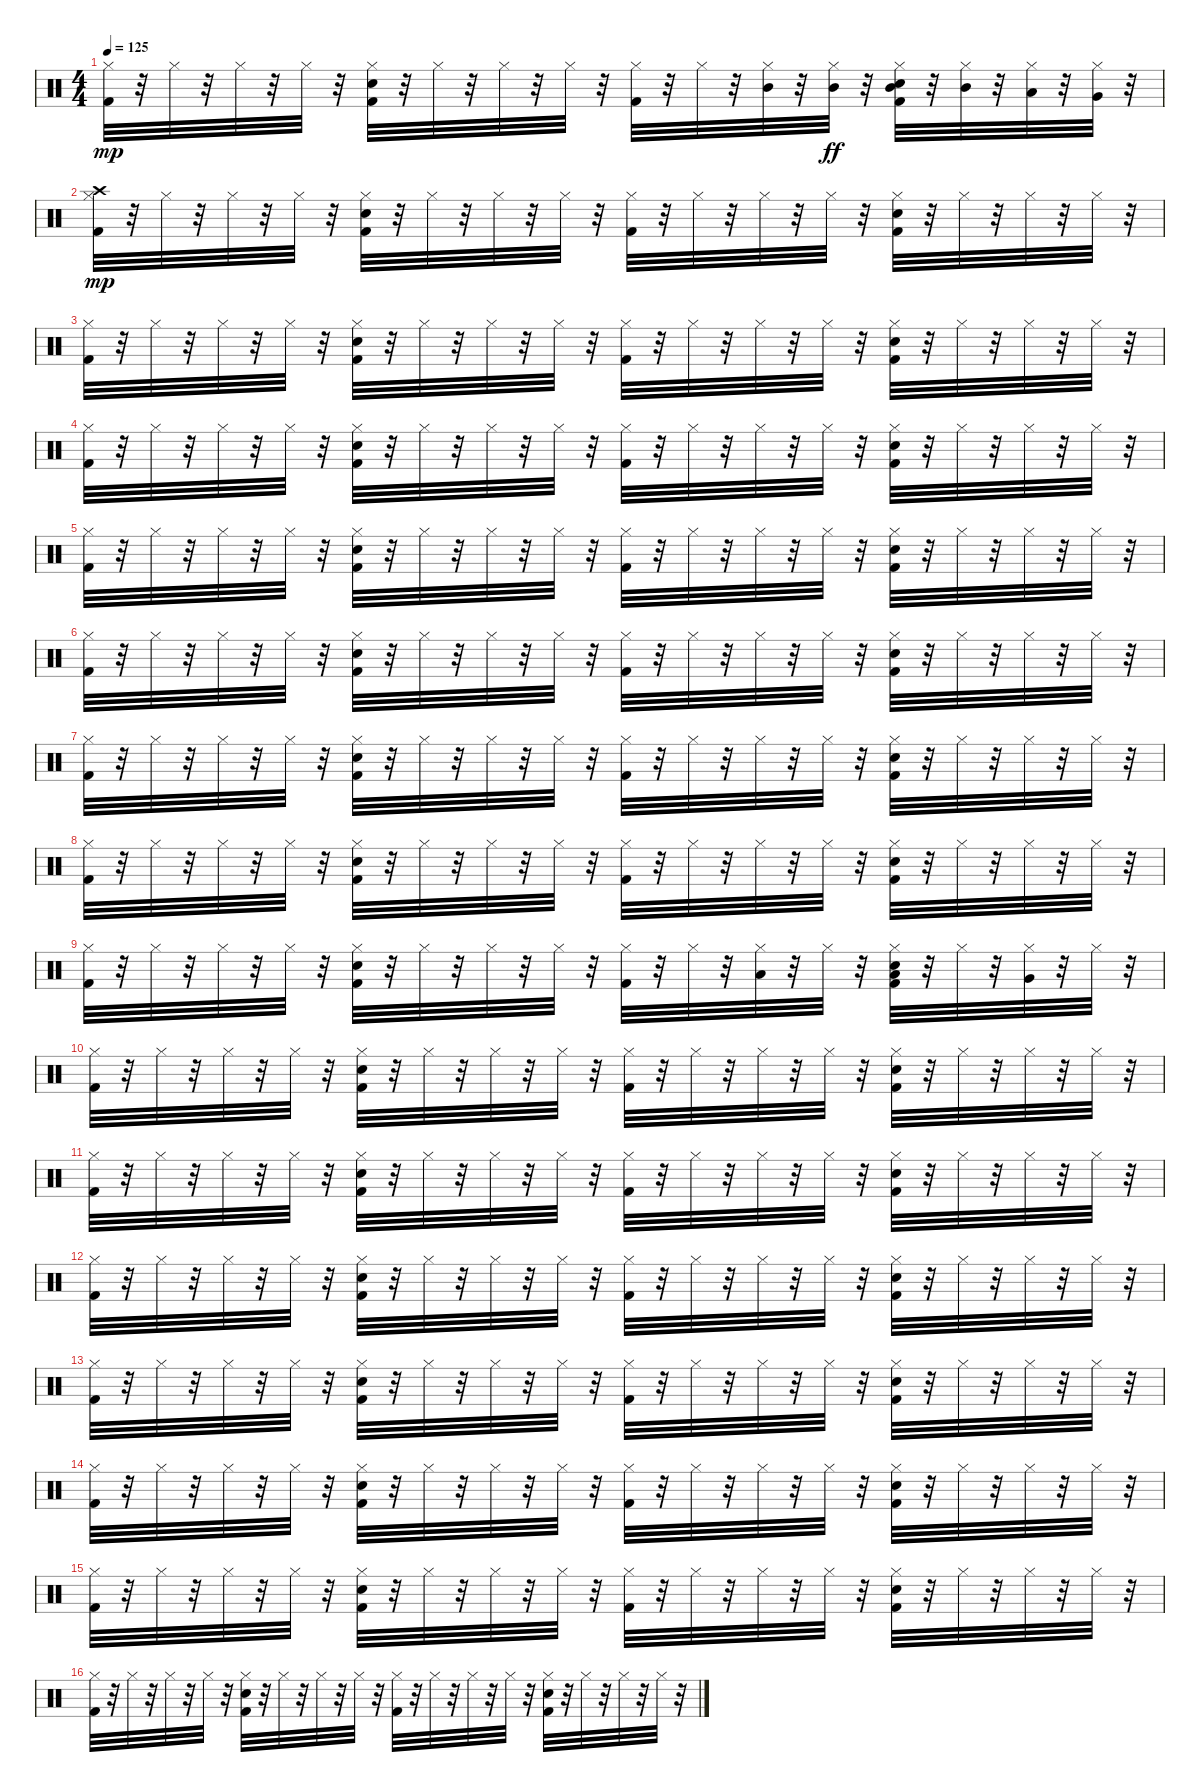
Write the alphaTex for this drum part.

\track "" {instrument percussion}
\staff {score}
\articulation defaults
\ts (4 4)
\tempo 125
\clef neutral
\ks c
("Kick (hit) 2" "Hi-Hat (closed)").32{dy mp} r.32 "Hi-Hat (closed)".32 r.32 "Hi-Hat (closed)".32 r.32 "Hi-Hat (closed)".32 r.32 ("Kick (hit) 2" "Snare (hit) 2" "Hi-Hat (closed)").32 r.32 "Hi-Hat (closed)".32 r.32 "Hi-Hat (closed)".32 r.32 "Hi-Hat (closed)".32 r.32 ("Kick (hit) 2" "Hi-Hat (closed)").32 r.32 "Hi-Hat (closed)".32 r.32 ("Mid Tom (hit)" "Hi-Hat (closed)").32 r.32 ("Hi-Hat (closed)" "Mid Tom (hit)").32{dy ff} r.32 ("Kick (hit) 2" "Snare (hit) 2" "Hi-Hat (closed)" "Mid Tom (hit)").32 r.32 ("Hi-Hat (closed)" "Mid Tom (hit)").32 r.32 ("Hi-Hat (closed)" "Low Tom (hit)").32 r.32 ("Hi-Hat (closed)" "Very Low Tom (hit)").32 r.32 |
("Crash high (hit)" "Kick (hit) 2" "Hi-Hat (closed)").32{dy mp} r.32 "Hi-Hat (closed)".32 r.32 "Hi-Hat (closed)".32 r.32 "Hi-Hat (closed)".32 r.32 ("Kick (hit) 2" "Snare (hit) 2" "Hi-Hat (closed)").32 r.32 "Hi-Hat (closed)".32 r.32 "Hi-Hat (closed)".32 r.32 "Hi-Hat (closed)".32 r.32 ("Kick (hit) 2" "Hi-Hat (closed)").32 r.32 "Hi-Hat (closed)".32 r.32 "Hi-Hat (closed)".32 r.32 "Hi-Hat (closed)".32 r.32 ("Kick (hit) 2" "Snare (hit) 2" "Hi-Hat (closed)").32 r.32 "Hi-Hat (closed)".32 r.32 "Hi-Hat (closed)".32 r.32 "Hi-Hat (closed)".32 r.32 |
("Kick (hit) 2" "Hi-Hat (closed)").32 r.32 "Hi-Hat (closed)".32 r.32 "Hi-Hat (closed)".32 r.32 "Hi-Hat (closed)".32 r.32 ("Kick (hit) 2" "Snare (hit) 2" "Hi-Hat (closed)").32 r.32 "Hi-Hat (closed)".32 r.32 "Hi-Hat (closed)".32 r.32 "Hi-Hat (closed)".32 r.32 ("Kick (hit) 2" "Hi-Hat (closed)").32 r.32 "Hi-Hat (closed)".32 r.32 "Hi-Hat (closed)".32 r.32 "Hi-Hat (closed)".32 r.32 ("Kick (hit) 2" "Snare (hit) 2" "Hi-Hat (closed)").32 r.32 "Hi-Hat (closed)".32 r.32 "Hi-Hat (closed)".32 r.32 "Hi-Hat (closed)".32 r.32 |
("Kick (hit) 2" "Hi-Hat (closed)").32 r.32 "Hi-Hat (closed)".32 r.32 "Hi-Hat (closed)".32 r.32 "Hi-Hat (closed)".32 r.32 ("Kick (hit) 2" "Snare (hit) 2" "Hi-Hat (closed)").32 r.32 "Hi-Hat (closed)".32 r.32 "Hi-Hat (closed)".32 r.32 "Hi-Hat (closed)".32 r.32 ("Kick (hit) 2" "Hi-Hat (closed)").32 r.32 "Hi-Hat (closed)".32 r.32 "Hi-Hat (closed)".32 r.32 "Hi-Hat (closed)".32 r.32 ("Kick (hit) 2" "Snare (hit) 2" "Hi-Hat (closed)").32 r.32 "Hi-Hat (closed)".32 r.32 "Hi-Hat (closed)".32 r.32 "Hi-Hat (closed)".32 r.32 |
("Kick (hit) 2" "Hi-Hat (closed)").32 r.32 "Hi-Hat (closed)".32 r.32 "Hi-Hat (closed)".32 r.32 "Hi-Hat (closed)".32 r.32 ("Kick (hit) 2" "Snare (hit) 2" "Hi-Hat (closed)").32 r.32 "Hi-Hat (closed)".32 r.32 "Hi-Hat (closed)".32 r.32 "Hi-Hat (closed)".32 r.32 ("Kick (hit) 2" "Hi-Hat (closed)").32 r.32 "Hi-Hat (closed)".32 r.32 "Hi-Hat (closed)".32 r.32 "Hi-Hat (closed)".32 r.32 ("Kick (hit) 2" "Snare (hit) 2" "Hi-Hat (closed)").32 r.32 "Hi-Hat (closed)".32 r.32 "Hi-Hat (closed)".32 r.32 "Hi-Hat (closed)".32 r.32 |
("Kick (hit) 2" "Hi-Hat (closed)").32 r.32 "Hi-Hat (closed)".32 r.32 "Hi-Hat (closed)".32 r.32 "Hi-Hat (closed)".32 r.32 ("Kick (hit) 2" "Snare (hit) 2" "Hi-Hat (closed)").32 r.32 "Hi-Hat (closed)".32 r.32 "Hi-Hat (closed)".32 r.32 "Hi-Hat (closed)".32 r.32 ("Kick (hit) 2" "Hi-Hat (closed)").32 r.32 "Hi-Hat (closed)".32 r.32 "Hi-Hat (closed)".32 r.32 "Hi-Hat (closed)".32 r.32 ("Kick (hit) 2" "Snare (hit) 2" "Hi-Hat (closed)").32 r.32 "Hi-Hat (closed)".32 r.32 "Hi-Hat (closed)".32 r.32 "Hi-Hat (closed)".32 r.32 |
("Kick (hit) 2" "Hi-Hat (closed)").32 r.32 "Hi-Hat (closed)".32 r.32 "Hi-Hat (closed)".32 r.32 "Hi-Hat (closed)".32 r.32 ("Kick (hit) 2" "Snare (hit) 2" "Hi-Hat (closed)").32 r.32 "Hi-Hat (closed)".32 r.32 "Hi-Hat (closed)".32 r.32 "Hi-Hat (closed)".32 r.32 ("Kick (hit) 2" "Hi-Hat (closed)").32 r.32 "Hi-Hat (closed)".32 r.32 "Hi-Hat (closed)".32 r.32 "Hi-Hat (closed)".32 r.32 ("Kick (hit) 2" "Snare (hit) 2" "Hi-Hat (closed)").32 r.32 "Hi-Hat (closed)".32 r.32 "Hi-Hat (closed)".32 r.32 "Hi-Hat (closed)".32 r.32 |
("Kick (hit) 2" "Hi-Hat (closed)").32 r.32 "Hi-Hat (closed)".32 r.32 "Hi-Hat (closed)".32 r.32 "Hi-Hat (closed)".32 r.32 ("Kick (hit) 2" "Snare (hit) 2" "Hi-Hat (closed)").32 r.32 "Hi-Hat (closed)".32 r.32 "Hi-Hat (closed)".32 r.32 "Hi-Hat (closed)".32 r.32 ("Kick (hit) 2" "Hi-Hat (closed)").32 r.32 "Hi-Hat (closed)".32 r.32 "Hi-Hat (closed)".32 r.32 "Hi-Hat (closed)".32 r.32 ("Kick (hit) 2" "Snare (hit) 2" "Hi-Hat (closed)").32 r.32 "Hi-Hat (closed)".32 r.32 "Hi-Hat (closed)".32 r.32 "Hi-Hat (closed)".32 r.32 |
("Kick (hit) 2" "Hi-Hat (closed)").32 r.32 "Hi-Hat (closed)".32 r.32 "Hi-Hat (closed)".32 r.32 "Hi-Hat (closed)".32 r.32 ("Kick (hit) 2" "Snare (hit) 2" "Hi-Hat (closed)").32 r.32 "Hi-Hat (closed)".32 r.32 "Hi-Hat (closed)".32 r.32 "Hi-Hat (closed)".32 r.32 ("Kick (hit) 2" "Hi-Hat (closed)").32 r.32 "Hi-Hat (closed)".32 r.32 ("Low Tom (hit)" "Hi-Hat (closed)").32 r.32 "Hi-Hat (closed)".32 r.32 ("Low Tom (hit)" "Kick (hit) 2" "Snare (hit) 2" "Hi-Hat (closed)").32 r.32 "Hi-Hat (closed)".32 r.32 ("Very Low Tom (hit)" "Hi-Hat (closed)").32 r.32 "Hi-Hat (closed)".32 r.32 |
("Kick (hit) 2" "Hi-Hat (closed)").32 r.32 "Hi-Hat (closed)".32 r.32 "Hi-Hat (closed)".32 r.32 "Hi-Hat (closed)".32 r.32 ("Kick (hit) 2" "Snare (hit) 2" "Hi-Hat (closed)").32 r.32 "Hi-Hat (closed)".32 r.32 "Hi-Hat (closed)".32 r.32 "Hi-Hat (closed)".32 r.32 ("Kick (hit) 2" "Hi-Hat (closed)").32 r.32 "Hi-Hat (closed)".32 r.32 "Hi-Hat (closed)".32 r.32 "Hi-Hat (closed)".32 r.32 ("Kick (hit) 2" "Snare (hit) 2" "Hi-Hat (closed)").32 r.32 "Hi-Hat (closed)".32 r.32 "Hi-Hat (closed)".32 r.32 "Hi-Hat (closed)".32 r.32 |
("Kick (hit) 2" "Hi-Hat (closed)").32 r.32 "Hi-Hat (closed)".32 r.32 "Hi-Hat (closed)".32 r.32 "Hi-Hat (closed)".32 r.32 ("Kick (hit) 2" "Snare (hit) 2" "Hi-Hat (closed)").32 r.32 "Hi-Hat (closed)".32 r.32 "Hi-Hat (closed)".32 r.32 "Hi-Hat (closed)".32 r.32 ("Kick (hit) 2" "Hi-Hat (closed)").32 r.32 "Hi-Hat (closed)".32 r.32 "Hi-Hat (closed)".32 r.32 "Hi-Hat (closed)".32 r.32 ("Kick (hit) 2" "Snare (hit) 2" "Hi-Hat (closed)").32 r.32 "Hi-Hat (closed)".32 r.32 "Hi-Hat (closed)".32 r.32 "Hi-Hat (closed)".32 r.32 |
("Kick (hit) 2" "Hi-Hat (closed)").32 r.32 "Hi-Hat (closed)".32 r.32 "Hi-Hat (closed)".32 r.32 "Hi-Hat (closed)".32 r.32 ("Kick (hit) 2" "Snare (hit) 2" "Hi-Hat (closed)").32 r.32 "Hi-Hat (closed)".32 r.32 "Hi-Hat (closed)".32 r.32 "Hi-Hat (closed)".32 r.32 ("Kick (hit) 2" "Hi-Hat (closed)").32 r.32 "Hi-Hat (closed)".32 r.32 "Hi-Hat (closed)".32 r.32 "Hi-Hat (closed)".32 r.32 ("Kick (hit) 2" "Snare (hit) 2" "Hi-Hat (closed)").32 r.32 "Hi-Hat (closed)".32 r.32 "Hi-Hat (closed)".32 r.32 "Hi-Hat (closed)".32 r.32 |
("Kick (hit) 2" "Hi-Hat (closed)").32 r.32 "Hi-Hat (closed)".32 r.32 "Hi-Hat (closed)".32 r.32 "Hi-Hat (closed)".32 r.32 ("Kick (hit) 2" "Snare (hit) 2" "Hi-Hat (closed)").32 r.32 "Hi-Hat (closed)".32 r.32 "Hi-Hat (closed)".32 r.32 "Hi-Hat (closed)".32 r.32 ("Kick (hit) 2" "Hi-Hat (closed)").32 r.32 "Hi-Hat (closed)".32 r.32 "Hi-Hat (closed)".32 r.32 "Hi-Hat (closed)".32 r.32 ("Kick (hit) 2" "Snare (hit) 2" "Hi-Hat (closed)").32 r.32 "Hi-Hat (closed)".32 r.32 "Hi-Hat (closed)".32 r.32 "Hi-Hat (closed)".32 r.32 |
("Kick (hit) 2" "Hi-Hat (closed)").32 r.32 "Hi-Hat (closed)".32 r.32 "Hi-Hat (closed)".32 r.32 "Hi-Hat (closed)".32 r.32 ("Kick (hit) 2" "Snare (hit) 2" "Hi-Hat (closed)").32 r.32 "Hi-Hat (closed)".32 r.32 "Hi-Hat (closed)".32 r.32 "Hi-Hat (closed)".32 r.32 ("Kick (hit) 2" "Hi-Hat (closed)").32 r.32 "Hi-Hat (closed)".32 r.32 "Hi-Hat (closed)".32 r.32 "Hi-Hat (closed)".32 r.32 ("Kick (hit) 2" "Snare (hit) 2" "Hi-Hat (closed)").32 r.32 "Hi-Hat (closed)".32 r.32 "Hi-Hat (closed)".32 r.32 "Hi-Hat (closed)".32 r.32 |
("Kick (hit) 2" "Hi-Hat (closed)").32 r.32 "Hi-Hat (closed)".32 r.32 "Hi-Hat (closed)".32 r.32 "Hi-Hat (closed)".32 r.32 ("Kick (hit) 2" "Snare (hit) 2" "Hi-Hat (closed)").32 r.32 "Hi-Hat (closed)".32 r.32 "Hi-Hat (closed)".32 r.32 "Hi-Hat (closed)".32 r.32 ("Kick (hit) 2" "Hi-Hat (closed)").32 r.32 "Hi-Hat (closed)".32 r.32 "Hi-Hat (closed)".32 r.32 "Hi-Hat (closed)".32 r.32 ("Kick (hit) 2" "Snare (hit) 2" "Hi-Hat (closed)").32 r.32 "Hi-Hat (closed)".32 r.32 "Hi-Hat (closed)".32 r.32 "Hi-Hat (closed)".32 r.32 |
("Kick (hit) 2" "Hi-Hat (closed)").32 r.32 "Hi-Hat (closed)".32 r.32 "Hi-Hat (closed)".32 r.32 "Hi-Hat (closed)".32 r.32 ("Kick (hit) 2" "Snare (hit) 2" "Hi-Hat (closed)").32 r.32 "Hi-Hat (closed)".32 r.32 "Hi-Hat (closed)".32 r.32 "Hi-Hat (closed)".32 r.32 ("Kick (hit) 2" "Hi-Hat (closed)").32 r.32 "Hi-Hat (closed)".32 r.32 "Hi-Hat (closed)".32 r.32 "Hi-Hat (closed)".32 r.32 ("Kick (hit) 2" "Snare (hit) 2" "Hi-Hat (closed)").32 r.32 "Hi-Hat (closed)".32 r.32 "Hi-Hat (closed)".32 r.32 "Hi-Hat (closed)".32 r.32
